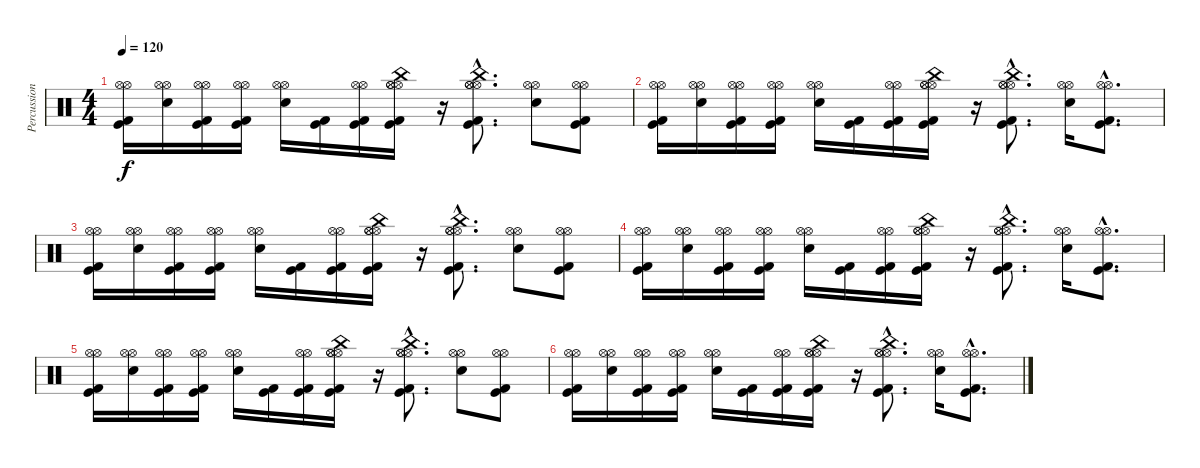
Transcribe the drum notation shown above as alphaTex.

\track ("Percussions" "Percussion") {instrument percussion}
\staff {score}
\articulation defaults
\ts (4 4)
\tempo 120
\clef neutral
\ks c
("Hi-Hat (open)" "Hi-Hat (open)" "Kick (hit)" "Kick (hit) 2").16{dy f} ("Hi-Hat (open)" "Hi-Hat (open)" "Electric Snare (hit)").16 ("Hi-Hat (open)" "Hi-Hat (open)" "Kick (hit)" "Kick (hit) 2").16 ("Hi-Hat (open)" "Hi-Hat (open)" "Kick (hit) 2" "Kick (hit)").16 ("Hi-Hat (open)" "Hi-Hat (open)" "Electric Snare (hit)").16 ("Kick (hit) 2" "Kick (hit)").16 ("Hi-Hat (open)" "Hi-Hat (open)" "Kick (hit)" "Kick (hit) 2").16 ("China (hit)" "Hi-Hat (open)" "Hi-Hat (open)" "Hi-Hat (open)" "Kick (hit)" "Kick (hit) 2").16 r.16 ("China (hit)"{hac} "Hi-Hat (open)"{hac} "Hi-Hat (open)"{hac} "Hi-Hat (open)"{hac} "Kick (hit) 2"{hac} "Kick (hit)"{hac}).8{d} ("Hi-Hat (open)" "Hi-Hat (open)" "Electric Snare (hit)").8 ("Hi-Hat (open)" "Hi-Hat (open)" "Kick (hit)" "Kick (hit) 2").8 |
("Hi-Hat (open)" "Hi-Hat (open)" "Kick (hit)" "Kick (hit) 2").16 ("Hi-Hat (open)" "Hi-Hat (open)" "Electric Snare (hit)").16 ("Hi-Hat (open)" "Hi-Hat (open)" "Kick (hit)" "Kick (hit) 2").16 ("Hi-Hat (open)" "Hi-Hat (open)" "Kick (hit) 2" "Kick (hit)").16 ("Hi-Hat (open)" "Hi-Hat (open)" "Electric Snare (hit)").16 ("Kick (hit) 2" "Kick (hit)").16 ("Hi-Hat (open)" "Hi-Hat (open)" "Kick (hit)" "Kick (hit) 2").16 ("China (hit)" "Hi-Hat (open)" "Hi-Hat (open)" "Hi-Hat (open)" "Kick (hit)" "Kick (hit) 2").16 r.16 ("China (hit)"{hac} "Hi-Hat (open)"{hac} "Hi-Hat (open)"{hac} "Hi-Hat (open)"{hac} "Kick (hit) 2"{hac} "Kick (hit)"{hac}).8{d} ("Hi-Hat (open)" "Hi-Hat (open)" "Electric Snare (hit)").16 ("Hi-Hat (open)"{hac} "Hi-Hat (open)"{hac} "Kick (hit)"{hac} "Kick (hit) 2"{hac}).8{d} |
("Hi-Hat (open)" "Hi-Hat (open)" "Kick (hit)" "Kick (hit) 2").16 ("Hi-Hat (open)" "Hi-Hat (open)" "Electric Snare (hit)").16 ("Hi-Hat (open)" "Hi-Hat (open)" "Kick (hit)" "Kick (hit) 2").16 ("Hi-Hat (open)" "Hi-Hat (open)" "Kick (hit) 2" "Kick (hit)").16 ("Hi-Hat (open)" "Hi-Hat (open)" "Electric Snare (hit)").16 ("Kick (hit) 2" "Kick (hit)").16 ("Hi-Hat (open)" "Hi-Hat (open)" "Kick (hit)" "Kick (hit) 2").16 ("China (hit)" "Hi-Hat (open)" "Hi-Hat (open)" "Hi-Hat (open)" "Kick (hit)" "Kick (hit) 2").16 r.16 ("China (hit)"{hac} "Hi-Hat (open)"{hac} "Hi-Hat (open)"{hac} "Hi-Hat (open)"{hac} "Kick (hit) 2"{hac} "Kick (hit)"{hac}).8{d} ("Hi-Hat (open)" "Hi-Hat (open)" "Electric Snare (hit)").8 ("Hi-Hat (open)" "Hi-Hat (open)" "Kick (hit)" "Kick (hit) 2").8 |
("Hi-Hat (open)" "Hi-Hat (open)" "Kick (hit)" "Kick (hit) 2").16 ("Hi-Hat (open)" "Hi-Hat (open)" "Electric Snare (hit)").16 ("Hi-Hat (open)" "Hi-Hat (open)" "Kick (hit)" "Kick (hit) 2").16 ("Hi-Hat (open)" "Hi-Hat (open)" "Kick (hit) 2" "Kick (hit)").16 ("Hi-Hat (open)" "Hi-Hat (open)" "Electric Snare (hit)").16 ("Kick (hit) 2" "Kick (hit)").16 ("Hi-Hat (open)" "Hi-Hat (open)" "Kick (hit)" "Kick (hit) 2").16 ("China (hit)" "Hi-Hat (open)" "Hi-Hat (open)" "Hi-Hat (open)" "Kick (hit)" "Kick (hit) 2").16 r.16 ("China (hit)"{hac} "Hi-Hat (open)"{hac} "Hi-Hat (open)"{hac} "Hi-Hat (open)"{hac} "Kick (hit) 2"{hac} "Kick (hit)"{hac}).8{d} ("Hi-Hat (open)" "Hi-Hat (open)" "Electric Snare (hit)").16 ("Hi-Hat (open)"{hac} "Hi-Hat (open)"{hac} "Kick (hit)"{hac} "Kick (hit) 2"{hac}).8{d} |
("Hi-Hat (open)" "Hi-Hat (open)" "Kick (hit)" "Kick (hit) 2").16 ("Hi-Hat (open)" "Hi-Hat (open)" "Electric Snare (hit)").16 ("Hi-Hat (open)" "Hi-Hat (open)" "Kick (hit)" "Kick (hit) 2").16 ("Hi-Hat (open)" "Hi-Hat (open)" "Kick (hit) 2" "Kick (hit)").16 ("Hi-Hat (open)" "Hi-Hat (open)" "Electric Snare (hit)").16 ("Kick (hit) 2" "Kick (hit)").16 ("Hi-Hat (open)" "Hi-Hat (open)" "Kick (hit)" "Kick (hit) 2").16 ("China (hit)" "Hi-Hat (open)" "Hi-Hat (open)" "Hi-Hat (open)" "Kick (hit)" "Kick (hit) 2").16 r.16 ("China (hit)"{hac} "Hi-Hat (open)"{hac} "Hi-Hat (open)"{hac} "Hi-Hat (open)"{hac} "Kick (hit) 2"{hac} "Kick (hit)"{hac}).8{d} ("Hi-Hat (open)" "Hi-Hat (open)" "Electric Snare (hit)").8 ("Hi-Hat (open)" "Hi-Hat (open)" "Kick (hit)" "Kick (hit) 2").8 |
("Hi-Hat (open)" "Hi-Hat (open)" "Kick (hit)" "Kick (hit) 2").16 ("Hi-Hat (open)" "Hi-Hat (open)" "Electric Snare (hit)").16 ("Hi-Hat (open)" "Hi-Hat (open)" "Kick (hit)" "Kick (hit) 2").16 ("Hi-Hat (open)" "Hi-Hat (open)" "Kick (hit) 2" "Kick (hit)").16 ("Hi-Hat (open)" "Hi-Hat (open)" "Electric Snare (hit)").16 ("Kick (hit) 2" "Kick (hit)").16 ("Hi-Hat (open)" "Hi-Hat (open)" "Kick (hit)" "Kick (hit) 2").16 ("China (hit)" "Hi-Hat (open)" "Hi-Hat (open)" "Hi-Hat (open)" "Kick (hit)" "Kick (hit) 2").16 r.16 ("China (hit)"{hac} "Hi-Hat (open)"{hac} "Hi-Hat (open)"{hac} "Hi-Hat (open)"{hac} "Kick (hit) 2"{hac} "Kick (hit)"{hac}).8{d} ("Hi-Hat (open)" "Hi-Hat (open)" "Electric Snare (hit)").16 ("Hi-Hat (open)"{hac} "Hi-Hat (open)"{hac} "Kick (hit)"{hac} "Kick (hit) 2"{hac}).8{d}
